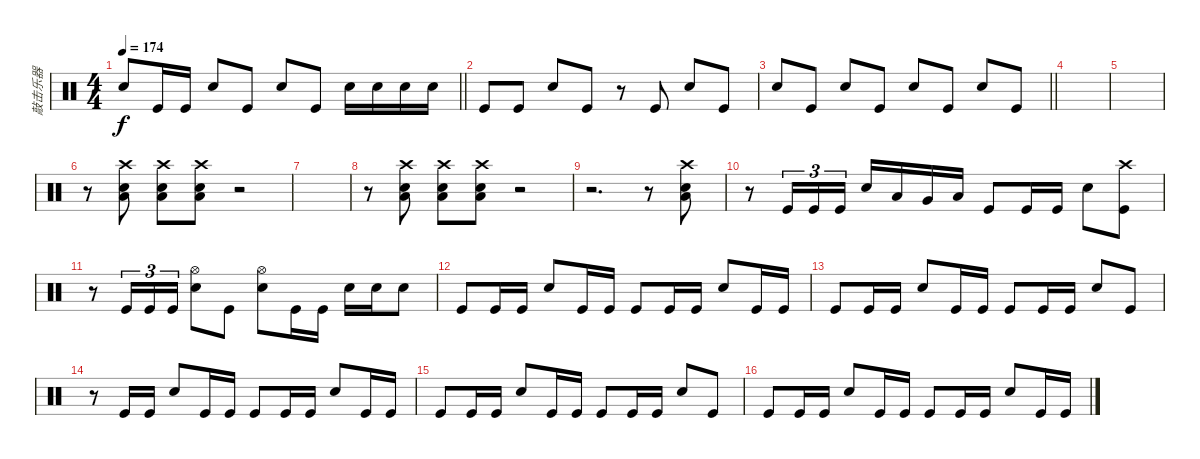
\track ("敲击乐器" "敲击乐器") {instrument percussion}
\staff {score}
\articulation defaults
\ts (4 4)
\tempo 174
\clef neutral
\barLineRight lightlight
\ks c "Snare (hit) 2".8{dy f} "Kick (hit)".16 "Kick (hit)".16 "Snare (hit) 2".8 "Kick (hit)".8 "Snare (hit) 2".8 "Kick (hit)".8 "Snare (hit) 2".16 "Snare (hit) 2".16 "Snare (hit) 2".16 "Snare (hit) 2".16
|
"Kick (hit)".8 "Kick (hit)".8 "Snare (hit) 2".8 "Kick (hit)".8 r.8 "Kick (hit)".8 "Snare (hit) 2".8 "Kick (hit)".8 |
\barLineRight lightlight "Snare (hit) 2".8 "Kick (hit)".8 "Snare (hit) 2".8 "Kick (hit)".8 "Snare (hit) 2".8 "Kick (hit)".8 "Snare (hit) 2".8 "Kick (hit)".8
|
|
|
r.8 ("Snare (hit) 2" "Crash high (hit)" "Low Floor Tom (hit)").8 ("Snare (hit) 2" "Crash high (hit)" "Low Floor Tom (hit)").8 ("Snare (hit) 2" "Crash high (hit)" "Low Floor Tom (hit)").8 r.2 |
|
r.8 ("Snare (hit) 2" "Crash high (hit)" "Low Floor Tom (hit)").8 ("Snare (hit) 2" "Crash high (hit)" "Low Floor Tom (hit)").8 ("Snare (hit) 2" "Crash high (hit)" "Low Floor Tom (hit)").8 r.2 |
r.2{d} r.8 ("Snare (hit) 2" "Crash high (hit)" "Low Floor Tom (hit)").8 |
r.8 "Kick (hit)".16{tu (3 2)} "Kick (hit)".16{tu (3 2)} "Kick (hit)".16{tu (3 2)} "Snare (hit) 2".16 "Low Tom (hit)".16 "Very Low Tom (hit)".16 "Low Floor Tom (hit)".16 "Kick (hit)".8 "Kick (hit)".16 "Kick (hit)".16 "Snare (hit) 2".8 ("Kick (hit)" "Crash high (hit)").8 |
r.8 "Kick (hit)".16{tu (3 2)} "Kick (hit)".16{tu (3 2)} "Kick (hit)".16{tu (3 2)} ("Snare (hit) 2" "Hi-Hat (open)").8 "Kick (hit)".8 ("Snare (hit) 2" "Hi-Hat (open)").8 "Kick (hit)".16 "Kick (hit)".16 "Snare (hit) 2".16 "Snare (hit) 2".16 "Snare (hit) 2".8 |
"Kick (hit)".8 "Kick (hit)".16 "Kick (hit)".16 "Snare (hit) 2".8 "Kick (hit)".16 "Kick (hit)".16 "Kick (hit)".8 "Kick (hit)".16 "Kick (hit)".16 "Snare (hit) 2".8 "Kick (hit)".16 "Kick (hit)".16 |
"Kick (hit)".8 "Kick (hit)".16 "Kick (hit)".16 "Snare (hit) 2".8 "Kick (hit)".16 "Kick (hit)".16 "Kick (hit)".8 "Kick (hit)".16 "Kick (hit)".16 "Snare (hit) 2".8 "Kick (hit)".8 |
r.8 "Kick (hit)".16 "Kick (hit)".16 "Snare (hit) 2".8 "Kick (hit)".16 "Kick (hit)".16 "Kick (hit)".8 "Kick (hit)".16 "Kick (hit)".16 "Snare (hit) 2".8 "Kick (hit)".16 "Kick (hit)".16 |
"Kick (hit)".8 "Kick (hit)".16 "Kick (hit)".16 "Snare (hit) 2".8 "Kick (hit)".16 "Kick (hit)".16 "Kick (hit)".8 "Kick (hit)".16 "Kick (hit)".16 "Snare (hit) 2".8 "Kick (hit)".8 |
"Kick (hit)".8 "Kick (hit)".16 "Kick (hit)".16 "Snare (hit) 2".8 "Kick (hit)".16 "Kick (hit)".16 "Kick (hit)".8 "Kick (hit)".16 "Kick (hit)".16 "Snare (hit) 2".8 "Kick (hit)".16 "Kick (hit)".16
